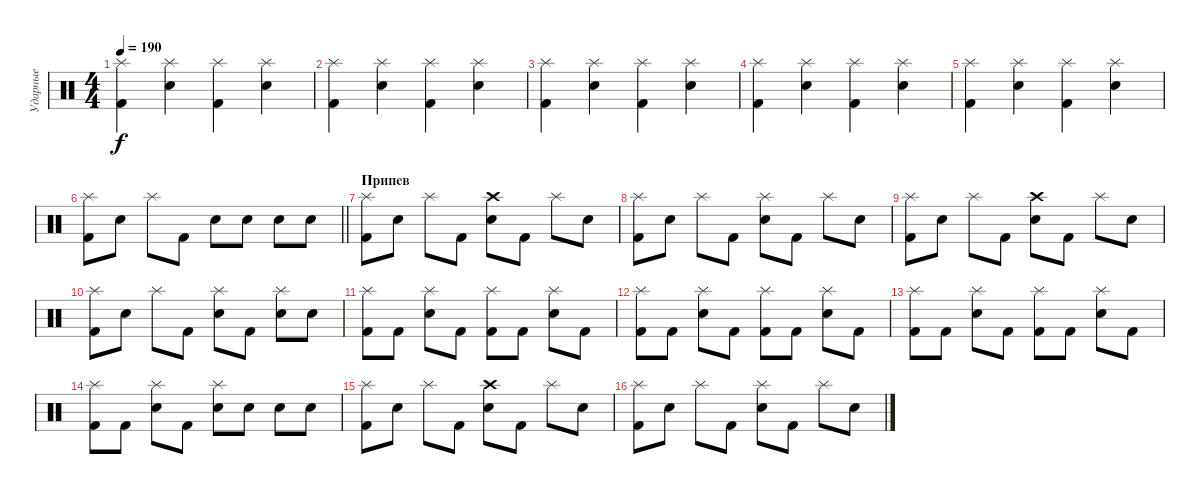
\track ("Ударные" "Ударные") {instrument percussion}
\staff {score}
\articulation defaults
\ts (4 4)
\tempo 190
\clef neutral
\ks c
("Splash (hit)" "Kick (hit) 2").4{dy f} ("Splash (hit)" "Electric Snare (hit)").4 ("Splash (hit)" "Kick (hit) 2").4 ("Splash (hit)" "Electric Snare (hit)").4 |
("Splash (hit)" "Kick (hit) 2").4 ("Splash (hit)" "Electric Snare (hit)").4 ("Splash (hit)" "Kick (hit) 2").4 ("Splash (hit)" "Electric Snare (hit)").4 |
("Splash (hit)" "Kick (hit) 2").4 ("Splash (hit)" "Electric Snare (hit)").4 ("Splash (hit)" "Kick (hit) 2").4 ("Splash (hit)" "Electric Snare (hit)").4 |
("Splash (hit)" "Kick (hit) 2").4 ("Splash (hit)" "Electric Snare (hit)").4 ("Splash (hit)" "Kick (hit) 2").4 ("Splash (hit)" "Electric Snare (hit)").4 |
("Splash (hit)" "Kick (hit) 2").4 ("Splash (hit)" "Electric Snare (hit)").4 ("Splash (hit)" "Kick (hit) 2").4 ("Splash (hit)" "Electric Snare (hit)").4 |
\barLineRight lightlight
("Splash (hit)" "Kick (hit) 2").8 "Electric Snare (hit)".8 "Splash (hit)".8 "Kick (hit) 2".8 "Electric Snare (hit)".8 "Electric Snare (hit)".8 "Electric Snare (hit)".8 "Electric Snare (hit)".8 |
\section ("" "Припев")
("Splash (hit)" "Kick (hit) 2").8 "Electric Snare (hit)".8 "Splash (hit)".8 "Kick (hit) 2".8 ("Crash high (hit)" "Electric Snare (hit)").8 "Kick (hit) 2".8 "Splash (hit)".8 "Electric Snare (hit)".8 |
("Splash (hit)" "Kick (hit) 2").8 "Electric Snare (hit)".8 "Splash (hit)".8 "Kick (hit) 2".8 ("Splash (hit)" "Electric Snare (hit)").8 "Kick (hit) 2".8 "Splash (hit)".8 "Electric Snare (hit)".8 |
("Splash (hit)" "Kick (hit) 2").8 "Electric Snare (hit)".8 "Splash (hit)".8 "Kick (hit) 2".8 ("Crash high (hit)" "Electric Snare (hit)").8 "Kick (hit) 2".8 "Splash (hit)".8 "Electric Snare (hit)".8 |
("Splash (hit)" "Kick (hit) 2").8 "Electric Snare (hit)".8 "Splash (hit)".8 "Kick (hit) 2".8 ("Splash (hit)" "Electric Snare (hit)").8 "Kick (hit) 2".8 ("Splash (hit)" "Electric Snare (hit)").8 "Electric Snare (hit)".8 |
("Splash (hit)" "Kick (hit) 2").8 "Kick (hit) 2".8 ("Splash (hit)" "Electric Snare (hit)").8 "Kick (hit) 2".8 ("Splash (hit)" "Kick (hit) 2").8 "Kick (hit) 2".8 ("Splash (hit)" "Electric Snare (hit)").8 "Kick (hit) 2".8 |
("Splash (hit)" "Kick (hit) 2").8 "Kick (hit) 2".8 ("Splash (hit)" "Electric Snare (hit)").8 "Kick (hit) 2".8 ("Splash (hit)" "Kick (hit) 2").8 "Kick (hit) 2".8 ("Splash (hit)" "Electric Snare (hit)").8 "Kick (hit) 2".8 |
("Splash (hit)" "Kick (hit) 2").8 "Kick (hit) 2".8 ("Splash (hit)" "Electric Snare (hit)").8 "Kick (hit) 2".8 ("Splash (hit)" "Kick (hit) 2").8 "Kick (hit) 2".8 ("Splash (hit)" "Electric Snare (hit)").8 "Kick (hit) 2".8 |
("Splash (hit)" "Kick (hit) 2").8 "Kick (hit) 2".8 ("Splash (hit)" "Electric Snare (hit)").8 "Kick (hit) 2".8 ("Splash (hit)" "Electric Snare (hit)").8 "Electric Snare (hit)".8 "Electric Snare (hit)".8 "Electric Snare (hit)".8 |
("Splash (hit)" "Kick (hit) 2").8 "Electric Snare (hit)".8 "Splash (hit)".8 "Kick (hit) 2".8 ("Crash high (hit)" "Electric Snare (hit)").8 "Kick (hit) 2".8 "Splash (hit)".8 "Electric Snare (hit)".8 |
("Splash (hit)" "Kick (hit) 2").8 "Electric Snare (hit)".8 "Splash (hit)".8 "Kick (hit) 2".8 ("Splash (hit)" "Electric Snare (hit)").8 "Kick (hit) 2".8 "Splash (hit)".8 "Electric Snare (hit)".8
